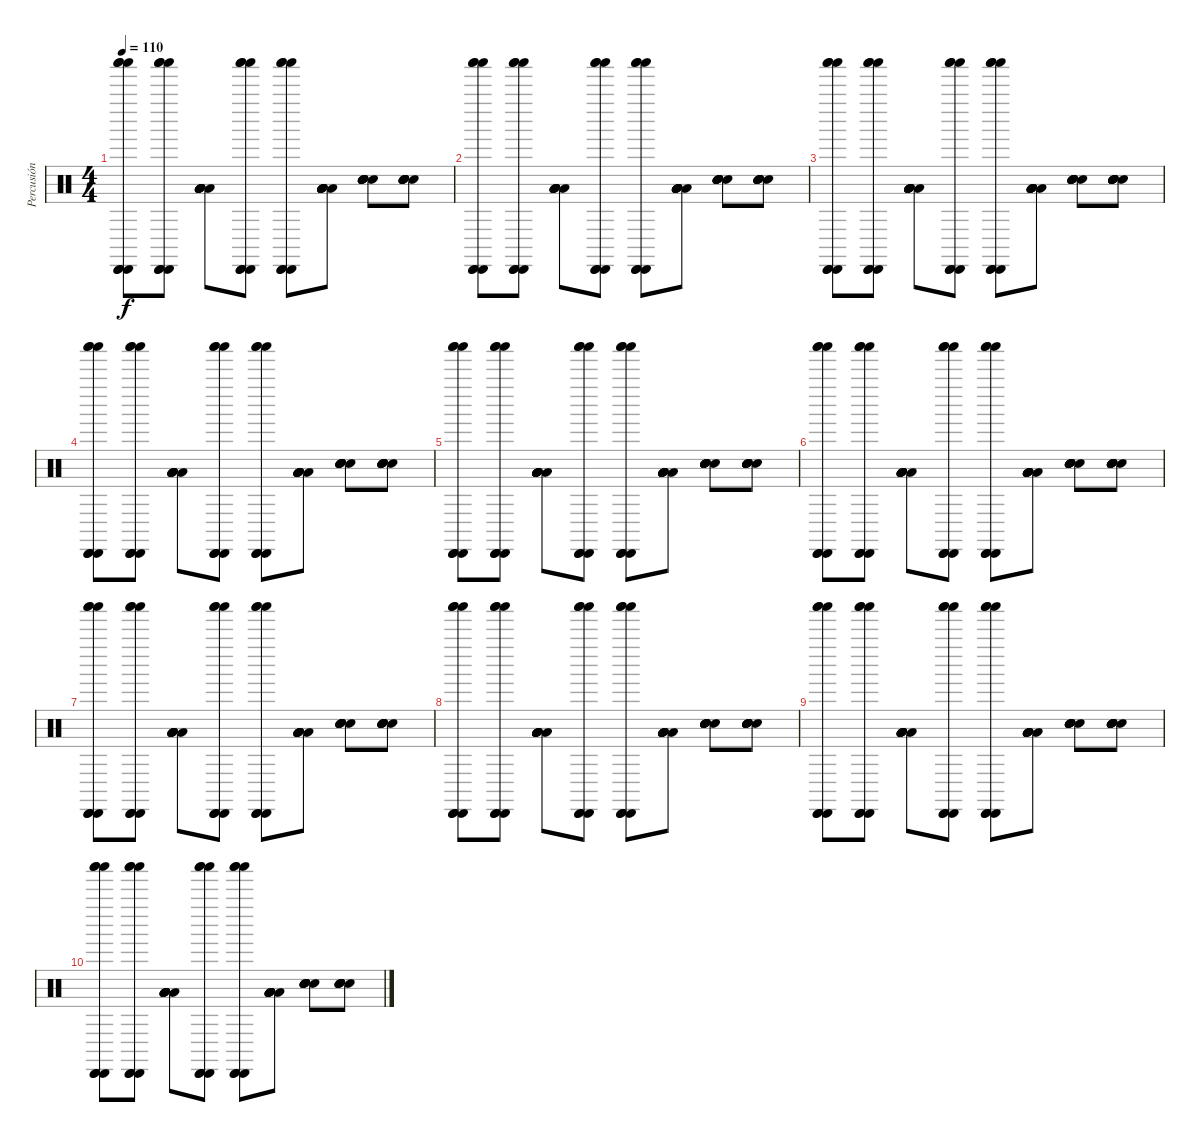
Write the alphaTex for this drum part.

\track ("Percusión" "Percusión") {instrument percussion}
\staff {score}
\articulation defaults
\ts (4 4)
\tempo 110
\clef neutral
\ks c
("Shaker (hit)" "Shaker (hit)" "Shaker (hit)" "Cabasa (hit)" "Cabasa (hit)" "Cabasa (hit)").8{dy f} ("Shaker (hit)" "Shaker (hit)" "Shaker (hit)" "Cabasa (hit)" "Cabasa (hit)" "Cabasa (hit)").8 ("Low Floor Tom (hit)" "Low Floor Tom (hit)" "Low Floor Tom (hit)" "Low Floor Tom (hit)" "Low Floor Tom (hit)" "Low Floor Tom (hit)").8 ("Shaker (hit)" "Shaker (hit)" "Shaker (hit)" "Cabasa (hit)" "Cabasa (hit)" "Cabasa (hit)").8 ("Shaker (hit)" "Shaker (hit)" "Shaker (hit)" "Cabasa (hit)" "Cabasa (hit)" "Cabasa (hit)").8 ("Low Floor Tom (hit)" "Low Floor Tom (hit)" "Low Floor Tom (hit)" "Low Floor Tom (hit)" "Low Floor Tom (hit)" "Low Floor Tom (hit)").8 ("Snare (hit) 2" "Snare (hit) 2" "Snare (hit) 2" "Snare (hit) 2" "Snare (hit) 2" "Snare (hit) 2").8 ("Electric Snare (hit)" "Electric Snare (hit)" "Electric Snare (hit)" "Electric Snare (hit)" "Electric Snare (hit)" "Electric Snare (hit)").8 |
("Shaker (hit)" "Shaker (hit)" "Shaker (hit)" "Cabasa (hit)" "Cabasa (hit)" "Cabasa (hit)").8 ("Shaker (hit)" "Shaker (hit)" "Shaker (hit)" "Cabasa (hit)" "Cabasa (hit)" "Cabasa (hit)").8 ("Low Floor Tom (hit)" "Low Floor Tom (hit)" "Low Floor Tom (hit)" "Low Floor Tom (hit)" "Low Floor Tom (hit)" "Low Floor Tom (hit)").8 ("Shaker (hit)" "Shaker (hit)" "Shaker (hit)" "Cabasa (hit)" "Cabasa (hit)" "Cabasa (hit)").8 ("Shaker (hit)" "Shaker (hit)" "Shaker (hit)" "Cabasa (hit)" "Cabasa (hit)" "Cabasa (hit)").8 ("Low Floor Tom (hit)" "Low Floor Tom (hit)" "Low Floor Tom (hit)" "Low Floor Tom (hit)" "Low Floor Tom (hit)" "Low Floor Tom (hit)").8 ("Snare (hit) 2" "Snare (hit) 2" "Snare (hit) 2" "Snare (hit) 2" "Snare (hit) 2" "Snare (hit) 2").8 ("Electric Snare (hit)" "Electric Snare (hit)" "Electric Snare (hit)" "Electric Snare (hit)" "Electric Snare (hit)" "Electric Snare (hit)").8 |
("Shaker (hit)" "Shaker (hit)" "Shaker (hit)" "Cabasa (hit)" "Cabasa (hit)" "Cabasa (hit)").8 ("Shaker (hit)" "Shaker (hit)" "Shaker (hit)" "Cabasa (hit)" "Cabasa (hit)" "Cabasa (hit)").8 ("Low Floor Tom (hit)" "Low Floor Tom (hit)" "Low Floor Tom (hit)" "Low Floor Tom (hit)" "Low Floor Tom (hit)" "Low Floor Tom (hit)").8 ("Shaker (hit)" "Shaker (hit)" "Shaker (hit)" "Cabasa (hit)" "Cabasa (hit)" "Cabasa (hit)").8 ("Shaker (hit)" "Shaker (hit)" "Shaker (hit)" "Cabasa (hit)" "Cabasa (hit)" "Cabasa (hit)").8 ("Low Floor Tom (hit)" "Low Floor Tom (hit)" "Low Floor Tom (hit)" "Low Floor Tom (hit)" "Low Floor Tom (hit)" "Low Floor Tom (hit)").8 ("Snare (hit) 2" "Snare (hit) 2" "Snare (hit) 2" "Snare (hit) 2" "Snare (hit) 2" "Snare (hit) 2").8 ("Electric Snare (hit)" "Electric Snare (hit)" "Electric Snare (hit)" "Electric Snare (hit)" "Electric Snare (hit)" "Electric Snare (hit)").8 |
("Shaker (hit)" "Shaker (hit)" "Shaker (hit)" "Cabasa (hit)" "Cabasa (hit)" "Cabasa (hit)").8 ("Shaker (hit)" "Shaker (hit)" "Shaker (hit)" "Cabasa (hit)" "Cabasa (hit)" "Cabasa (hit)").8 ("Low Floor Tom (hit)" "Low Floor Tom (hit)" "Low Floor Tom (hit)" "Low Floor Tom (hit)" "Low Floor Tom (hit)" "Low Floor Tom (hit)").8 ("Shaker (hit)" "Shaker (hit)" "Shaker (hit)" "Cabasa (hit)" "Cabasa (hit)" "Cabasa (hit)").8 ("Shaker (hit)" "Shaker (hit)" "Shaker (hit)" "Cabasa (hit)" "Cabasa (hit)" "Cabasa (hit)").8 ("Low Floor Tom (hit)" "Low Floor Tom (hit)" "Low Floor Tom (hit)" "Low Floor Tom (hit)" "Low Floor Tom (hit)" "Low Floor Tom (hit)").8 ("Snare (hit) 2" "Snare (hit) 2" "Snare (hit) 2" "Snare (hit) 2" "Snare (hit) 2" "Snare (hit) 2").8 ("Electric Snare (hit)" "Electric Snare (hit)" "Electric Snare (hit)" "Electric Snare (hit)" "Electric Snare (hit)" "Electric Snare (hit)").8 |
("Shaker (hit)" "Shaker (hit)" "Shaker (hit)" "Cabasa (hit)" "Cabasa (hit)" "Cabasa (hit)").8 ("Shaker (hit)" "Shaker (hit)" "Shaker (hit)" "Cabasa (hit)" "Cabasa (hit)" "Cabasa (hit)").8 ("Low Floor Tom (hit)" "Low Floor Tom (hit)" "Low Floor Tom (hit)" "Low Floor Tom (hit)" "Low Floor Tom (hit)" "Low Floor Tom (hit)").8 ("Shaker (hit)" "Shaker (hit)" "Shaker (hit)" "Cabasa (hit)" "Cabasa (hit)" "Cabasa (hit)").8 ("Shaker (hit)" "Shaker (hit)" "Shaker (hit)" "Cabasa (hit)" "Cabasa (hit)" "Cabasa (hit)").8 ("Low Floor Tom (hit)" "Low Floor Tom (hit)" "Low Floor Tom (hit)" "Low Floor Tom (hit)" "Low Floor Tom (hit)" "Low Floor Tom (hit)").8 ("Snare (hit) 2" "Snare (hit) 2" "Snare (hit) 2" "Snare (hit) 2" "Snare (hit) 2" "Snare (hit) 2").8 ("Electric Snare (hit)" "Electric Snare (hit)" "Electric Snare (hit)" "Electric Snare (hit)" "Electric Snare (hit)" "Electric Snare (hit)").8 |
("Shaker (hit)" "Shaker (hit)" "Shaker (hit)" "Cabasa (hit)" "Cabasa (hit)" "Cabasa (hit)").8 ("Shaker (hit)" "Shaker (hit)" "Shaker (hit)" "Cabasa (hit)" "Cabasa (hit)" "Cabasa (hit)").8 ("Low Floor Tom (hit)" "Low Floor Tom (hit)" "Low Floor Tom (hit)" "Low Floor Tom (hit)" "Low Floor Tom (hit)" "Low Floor Tom (hit)").8 ("Shaker (hit)" "Shaker (hit)" "Shaker (hit)" "Cabasa (hit)" "Cabasa (hit)" "Cabasa (hit)").8 ("Shaker (hit)" "Shaker (hit)" "Shaker (hit)" "Cabasa (hit)" "Cabasa (hit)" "Cabasa (hit)").8 ("Low Floor Tom (hit)" "Low Floor Tom (hit)" "Low Floor Tom (hit)" "Low Floor Tom (hit)" "Low Floor Tom (hit)" "Low Floor Tom (hit)").8 ("Snare (hit) 2" "Snare (hit) 2" "Snare (hit) 2" "Snare (hit) 2" "Snare (hit) 2" "Snare (hit) 2").8 ("Electric Snare (hit)" "Electric Snare (hit)" "Electric Snare (hit)" "Electric Snare (hit)" "Electric Snare (hit)" "Electric Snare (hit)").8 |
("Shaker (hit)" "Shaker (hit)" "Shaker (hit)" "Cabasa (hit)" "Cabasa (hit)" "Cabasa (hit)").8 ("Shaker (hit)" "Shaker (hit)" "Shaker (hit)" "Cabasa (hit)" "Cabasa (hit)" "Cabasa (hit)").8 ("Low Floor Tom (hit)" "Low Floor Tom (hit)" "Low Floor Tom (hit)" "Low Floor Tom (hit)" "Low Floor Tom (hit)" "Low Floor Tom (hit)").8 ("Shaker (hit)" "Shaker (hit)" "Shaker (hit)" "Cabasa (hit)" "Cabasa (hit)" "Cabasa (hit)").8 ("Shaker (hit)" "Shaker (hit)" "Shaker (hit)" "Cabasa (hit)" "Cabasa (hit)" "Cabasa (hit)").8 ("Low Floor Tom (hit)" "Low Floor Tom (hit)" "Low Floor Tom (hit)" "Low Floor Tom (hit)" "Low Floor Tom (hit)" "Low Floor Tom (hit)").8 ("Snare (hit) 2" "Snare (hit) 2" "Snare (hit) 2" "Snare (hit) 2" "Snare (hit) 2" "Snare (hit) 2").8 ("Electric Snare (hit)" "Electric Snare (hit)" "Electric Snare (hit)" "Electric Snare (hit)" "Electric Snare (hit)" "Electric Snare (hit)").8 |
("Shaker (hit)" "Shaker (hit)" "Shaker (hit)" "Cabasa (hit)" "Cabasa (hit)" "Cabasa (hit)").8 ("Shaker (hit)" "Shaker (hit)" "Shaker (hit)" "Cabasa (hit)" "Cabasa (hit)" "Cabasa (hit)").8 ("Low Floor Tom (hit)" "Low Floor Tom (hit)" "Low Floor Tom (hit)" "Low Floor Tom (hit)" "Low Floor Tom (hit)" "Low Floor Tom (hit)").8 ("Shaker (hit)" "Shaker (hit)" "Shaker (hit)" "Cabasa (hit)" "Cabasa (hit)" "Cabasa (hit)").8 ("Shaker (hit)" "Shaker (hit)" "Shaker (hit)" "Cabasa (hit)" "Cabasa (hit)" "Cabasa (hit)").8 ("Low Floor Tom (hit)" "Low Floor Tom (hit)" "Low Floor Tom (hit)" "Low Floor Tom (hit)" "Low Floor Tom (hit)" "Low Floor Tom (hit)").8 ("Snare (hit) 2" "Snare (hit) 2" "Snare (hit) 2" "Snare (hit) 2" "Snare (hit) 2" "Snare (hit) 2").8 ("Electric Snare (hit)" "Electric Snare (hit)" "Electric Snare (hit)" "Electric Snare (hit)" "Electric Snare (hit)" "Electric Snare (hit)").8 |
("Shaker (hit)" "Shaker (hit)" "Shaker (hit)" "Cabasa (hit)" "Cabasa (hit)" "Cabasa (hit)").8 ("Shaker (hit)" "Shaker (hit)" "Shaker (hit)" "Cabasa (hit)" "Cabasa (hit)" "Cabasa (hit)").8 ("Low Floor Tom (hit)" "Low Floor Tom (hit)" "Low Floor Tom (hit)" "Low Floor Tom (hit)" "Low Floor Tom (hit)" "Low Floor Tom (hit)").8 ("Shaker (hit)" "Shaker (hit)" "Shaker (hit)" "Cabasa (hit)" "Cabasa (hit)" "Cabasa (hit)").8 ("Shaker (hit)" "Shaker (hit)" "Shaker (hit)" "Cabasa (hit)" "Cabasa (hit)" "Cabasa (hit)").8 ("Low Floor Tom (hit)" "Low Floor Tom (hit)" "Low Floor Tom (hit)" "Low Floor Tom (hit)" "Low Floor Tom (hit)" "Low Floor Tom (hit)").8 ("Snare (hit) 2" "Snare (hit) 2" "Snare (hit) 2" "Snare (hit) 2" "Snare (hit) 2" "Snare (hit) 2").8 ("Electric Snare (hit)" "Electric Snare (hit)" "Electric Snare (hit)" "Electric Snare (hit)" "Electric Snare (hit)" "Electric Snare (hit)").8 |
("Shaker (hit)" "Shaker (hit)" "Shaker (hit)" "Cabasa (hit)" "Cabasa (hit)" "Cabasa (hit)").8 ("Shaker (hit)" "Shaker (hit)" "Shaker (hit)" "Cabasa (hit)" "Cabasa (hit)" "Cabasa (hit)").8 ("Low Floor Tom (hit)" "Low Floor Tom (hit)" "Low Floor Tom (hit)" "Low Floor Tom (hit)" "Low Floor Tom (hit)" "Low Floor Tom (hit)").8 ("Shaker (hit)" "Shaker (hit)" "Shaker (hit)" "Cabasa (hit)" "Cabasa (hit)" "Cabasa (hit)").8 ("Shaker (hit)" "Shaker (hit)" "Shaker (hit)" "Cabasa (hit)" "Cabasa (hit)" "Cabasa (hit)").8 ("Low Floor Tom (hit)" "Low Floor Tom (hit)" "Low Floor Tom (hit)" "Low Floor Tom (hit)" "Low Floor Tom (hit)" "Low Floor Tom (hit)").8 ("Snare (hit) 2" "Snare (hit) 2" "Snare (hit) 2" "Snare (hit) 2" "Snare (hit) 2" "Snare (hit) 2").8 ("Electric Snare (hit)" "Electric Snare (hit)" "Electric Snare (hit)" "Electric Snare (hit)" "Electric Snare (hit)" "Electric Snare (hit)").8
